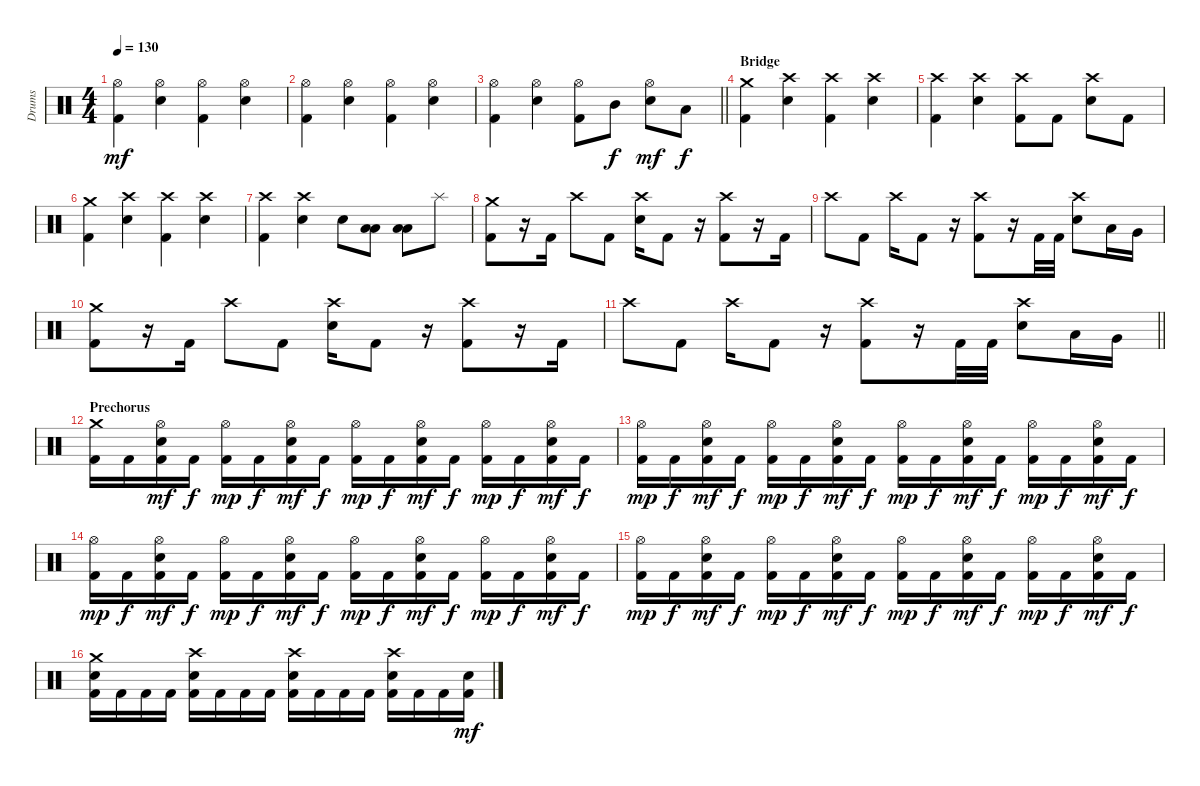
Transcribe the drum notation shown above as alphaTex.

\track ("Drums" "Drums") {instrument percussion}
\staff {score}
\articulation defaults
\ts (4 4)
\tempo 130
\clef neutral
\ks c
("Kick (hit) 2" "Hi-Hat (open)").4{dy mf} ("Hi-Hat (open)" "Electric Snare (hit)").4 ("Kick (hit) 2" "Hi-Hat (open)").4 ("Hi-Hat (open)" "Electric Snare (hit)").4 |
("Kick (hit) 2" "Hi-Hat (open)").4 ("Hi-Hat (open)" "Electric Snare (hit)").4 ("Kick (hit) 2" "Hi-Hat (open)").4 ("Hi-Hat (open)" "Electric Snare (hit)").4 |
\barLineRight lightlight
("Kick (hit) 2" "Hi-Hat (open)").4 ("Hi-Hat (open)" "Electric Snare (hit)").4 ("Kick (hit) 2" "Hi-Hat (open)").8 "Mid Tom (hit)".8{dy f} ("Hi-Hat (open)" "Electric Snare (hit)").8{dy mf} "Low Tom (hit)".8{dy f} |
\section ("" "Bridge")
("Kick (hit) 2" "Crash medium (hit)").4 ("Crash high (hit)" "Electric Snare (hit)").4 ("Kick (hit) 2" "Crash high (hit)").4 ("Crash high (hit)" "Electric Snare (hit)").4 |
("Kick (hit) 2" "Crash high (hit)").4 ("Crash high (hit)" "Electric Snare (hit)").4 ("Kick (hit) 2" "Crash high (hit)").8 "Kick (hit) 2".8 ("Crash high (hit)" "Electric Snare (hit)").8 "Kick (hit) 2".8 |
("Kick (hit) 2" "Crash medium (hit)").4 ("Crash high (hit)" "Electric Snare (hit)").4 ("Kick (hit) 2" "Crash high (hit)").4 ("Crash high (hit)" "Electric Snare (hit)").4 |
("Kick (hit) 2" "Crash high (hit)").4 ("Crash high (hit)" "Electric Snare (hit)").4 "Electric Snare (hit)".8 ("Low Floor Tom (hit)" "Low Tom (hit)").8 ("Low Floor Tom (hit)" "Low Tom (hit)").8 "Splash (hit)".8 |
("Kick (hit) 2" "Crash medium (hit)").8 r.16 "Kick (hit) 2".16 "Crash high (hit)".8 "Kick (hit) 2".8 ("Crash high (hit)" "Electric Snare (hit)").16 "Kick (hit) 2".8 r.16 ("Kick (hit) 2" "Crash high (hit)").8 r.16 "Kick (hit) 2".16 |
"Crash high (hit)".8 "Kick (hit) 2".8 "Crash high (hit)".16 "Kick (hit) 2".8 r.16 ("Kick (hit) 2" "Crash high (hit)").8 r.16 "Kick (hit) 2".32 "Kick (hit) 2".32 ("Crash high (hit)" "Electric Snare (hit)").8 "Low Tom (hit)".16 "Very Low Tom (hit)".16 |
("Kick (hit) 2" "Crash medium (hit)").8 r.16 "Kick (hit) 2".16 "Crash high (hit)".8 "Kick (hit) 2".8 ("Crash high (hit)" "Electric Snare (hit)").16 "Kick (hit) 2".8 r.16 ("Kick (hit) 2" "Crash high (hit)").8 r.16 "Kick (hit) 2".16 |
\barLineRight lightlight "Crash high (hit)".8 "Kick (hit) 2".8 "Crash high (hit)".16 "Kick (hit) 2".8
r.16 ("Kick (hit) 2" "Crash high (hit)").8 r.16 "Kick (hit) 2".32 "Kick (hit) 2".32 ("Crash high (hit)" "Electric Snare (hit)").8 "Low Tom (hit)".16 "Very Low Tom (hit)".16 |
\section ("" "Prechorus")
("Kick (hit) 2" "Crash medium (hit)").16 "Kick (hit) 2".16 ("Kick (hit) 2" "Hi-Hat (open)" "Electric Snare (hit)").16{dy mf} "Kick (hit) 2".16{dy f} ("Kick (hit) 2" "Hi-Hat (open)").16{dy mp} "Kick (hit) 2".16{dy f} ("Kick (hit) 2" "Hi-Hat (open)" "Electric Snare (hit)").16{dy mf} "Kick (hit) 2".16{dy f} ("Kick (hit) 2" "Hi-Hat (open)").16{dy mp} "Kick (hit) 2".16{dy f} ("Kick (hit) 2" "Hi-Hat (open)" "Electric Snare (hit)").16{dy mf} "Kick (hit) 2".16{dy f} ("Kick (hit) 2" "Hi-Hat (open)").16{dy mp} "Kick (hit) 2".16{dy f} ("Kick (hit) 2" "Hi-Hat (open)" "Electric Snare (hit)").16{dy mf} "Kick (hit) 2".16{dy f} |
("Kick (hit) 2" "Hi-Hat (open)").16{dy mp} "Kick (hit) 2".16{dy f} ("Kick (hit) 2" "Hi-Hat (open)" "Electric Snare (hit)").16{dy mf} "Kick (hit) 2".16{dy f} ("Kick (hit) 2" "Hi-Hat (open)").16{dy mp} "Kick (hit) 2".16{dy f} ("Kick (hit) 2" "Hi-Hat (open)" "Electric Snare (hit)").16{dy mf} "Kick (hit) 2".16{dy f} ("Kick (hit) 2" "Hi-Hat (open)").16{dy mp} "Kick (hit) 2".16{dy f} ("Kick (hit) 2" "Hi-Hat (open)" "Electric Snare (hit)").16{dy mf} "Kick (hit) 2".16{dy f} ("Kick (hit) 2" "Hi-Hat (open)").16{dy mp} "Kick (hit) 2".16{dy f} ("Kick (hit) 2" "Hi-Hat (open)" "Electric Snare (hit)").16{dy mf} "Kick (hit) 2".16{dy f} |
("Kick (hit) 2" "Hi-Hat (open)").16{dy mp} "Kick (hit) 2".16{dy f} ("Kick (hit) 2" "Hi-Hat (open)" "Electric Snare (hit)").16{dy mf} "Kick (hit) 2".16{dy f} ("Kick (hit) 2" "Hi-Hat (open)").16{dy mp} "Kick (hit) 2".16{dy f} ("Kick (hit) 2" "Hi-Hat (open)" "Electric Snare (hit)").16{dy mf} "Kick (hit) 2".16{dy f} ("Kick (hit) 2" "Hi-Hat (open)").16{dy mp} "Kick (hit) 2".16{dy f} ("Kick (hit) 2" "Hi-Hat (open)" "Electric Snare (hit)").16{dy mf} "Kick (hit) 2".16{dy f} ("Kick (hit) 2" "Hi-Hat (open)").16{dy mp} "Kick (hit) 2".16{dy f} ("Kick (hit) 2" "Hi-Hat (open)" "Electric Snare (hit)").16{dy mf} "Kick (hit) 2".16{dy f} |
("Kick (hit) 2" "Hi-Hat (open)").16{dy mp} "Kick (hit) 2".16{dy f} ("Kick (hit) 2" "Hi-Hat (open)" "Electric Snare (hit)").16{dy mf} "Kick (hit) 2".16{dy f} ("Kick (hit) 2" "Hi-Hat (open)").16{dy mp} "Kick (hit) 2".16{dy f} ("Kick (hit) 2" "Hi-Hat (open)" "Electric Snare (hit)").16{dy mf} "Kick (hit) 2".16{dy f} ("Kick (hit) 2" "Hi-Hat (open)").16{dy mp} "Kick (hit) 2".16{dy f} ("Kick (hit) 2" "Hi-Hat (open)" "Electric Snare (hit)").16{dy mf} "Kick (hit) 2".16{dy f} ("Kick (hit) 2" "Hi-Hat (open)").16{dy mp} "Kick (hit) 2".16{dy f} ("Kick (hit) 2" "Hi-Hat (open)" "Electric Snare (hit)").16{dy mf} "Kick (hit) 2".16{dy f} |
("Kick (hit) 2" "Crash medium (hit)" "Electric Snare (hit)").16 "Kick (hit) 2".16 "Kick (hit) 2".16 "Kick (hit) 2".16 ("Kick (hit) 2" "Crash high (hit)" "Electric Snare (hit)").16 "Kick (hit) 2".16 "Kick (hit) 2".16 "Kick (hit) 2".16 ("Kick (hit) 2" "Crash high (hit)" "Electric Snare (hit)").16 "Kick (hit) 2".16 "Kick (hit) 2".16 "Kick (hit) 2".16 ("Kick (hit) 2" "Crash high (hit)" "Electric Snare (hit)").16 "Kick (hit) 2".16 "Kick (hit) 2".16 ("Kick (hit) 2" "Electric Snare (hit)").16{dy mf}
